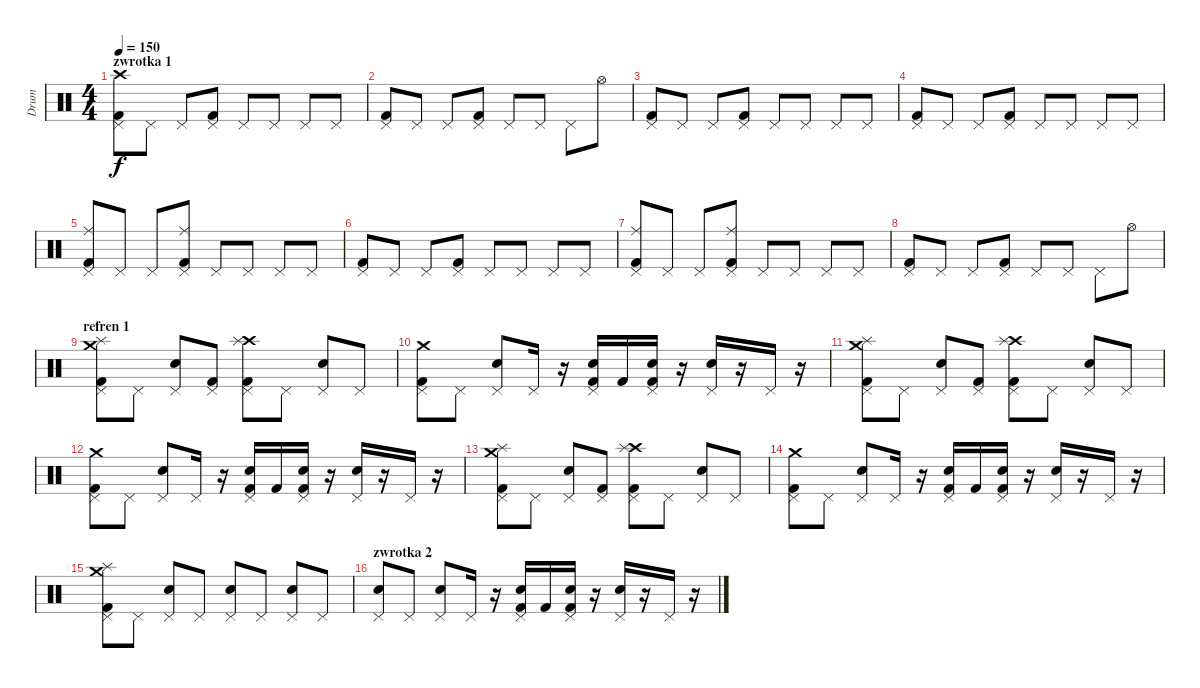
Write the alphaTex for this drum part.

\track ("Drum" "Drum") {instrument percussion}
\staff {score}
\articulation defaults
\ts (4 4)
\section ("" "zwrotka 1")
\tempo 150
\clef neutral
\ks c
("Crash high (hit)" "Kick (hit) 2" "Pedal Hi-Hat (hit)").8{dy f} "Pedal Hi-Hat (hit)".8 "Pedal Hi-Hat (hit)".8 ("Kick (hit) 2" "Pedal Hi-Hat (hit)").8 "Pedal Hi-Hat (hit)".8 "Pedal Hi-Hat (hit)".8 "Pedal Hi-Hat (hit)".8 "Pedal Hi-Hat (hit)".8 |
("Kick (hit) 2" "Pedal Hi-Hat (hit)").8 "Pedal Hi-Hat (hit)".8 "Pedal Hi-Hat (hit)".8 ("Kick (hit) 2" "Pedal Hi-Hat (hit)").8 "Pedal Hi-Hat (hit)".8 "Pedal Hi-Hat (hit)".8 "Pedal Hi-Hat (hit)".8 "Hi-Hat (open)".8 |
("Kick (hit) 2" "Pedal Hi-Hat (hit)").8 "Pedal Hi-Hat (hit)".8 "Pedal Hi-Hat (hit)".8 ("Kick (hit) 2" "Pedal Hi-Hat (hit)").8 "Pedal Hi-Hat (hit)".8 "Pedal Hi-Hat (hit)".8 "Pedal Hi-Hat (hit)".8 "Pedal Hi-Hat (hit)".8 |
("Kick (hit) 2" "Pedal Hi-Hat (hit)").8 "Pedal Hi-Hat (hit)".8 "Pedal Hi-Hat (hit)".8 ("Kick (hit) 2" "Pedal Hi-Hat (hit)").8 "Pedal Hi-Hat (hit)".8 "Pedal Hi-Hat (hit)".8 "Pedal Hi-Hat (hit)".8 "Pedal Hi-Hat (hit)".8 |
("Ride (middle)" "Kick (hit) 2" "Pedal Hi-Hat (hit)").8 "Pedal Hi-Hat (hit)".8 "Pedal Hi-Hat (hit)".8 ("Ride (middle)" "Kick (hit) 2" "Pedal Hi-Hat (hit)").8 "Pedal Hi-Hat (hit)".8 "Pedal Hi-Hat (hit)".8 "Pedal Hi-Hat (hit)".8 "Pedal Hi-Hat (hit)".8 |
("Kick (hit) 2" "Pedal Hi-Hat (hit)").8 "Pedal Hi-Hat (hit)".8 "Pedal Hi-Hat (hit)".8 ("Kick (hit) 2" "Pedal Hi-Hat (hit)").8 "Pedal Hi-Hat (hit)".8 "Pedal Hi-Hat (hit)".8 "Pedal Hi-Hat (hit)".8 "Pedal Hi-Hat (hit)".8 |
("Ride (middle)" "Kick (hit) 2" "Pedal Hi-Hat (hit)").8 "Pedal Hi-Hat (hit)".8 "Pedal Hi-Hat (hit)".8 ("Ride (middle)" "Kick (hit) 2" "Pedal Hi-Hat (hit)").8 "Pedal Hi-Hat (hit)".8 "Pedal Hi-Hat (hit)".8 "Pedal Hi-Hat (hit)".8 "Pedal Hi-Hat (hit)".8 |
("Kick (hit) 2" "Pedal Hi-Hat (hit)").8 "Pedal Hi-Hat (hit)".8 "Pedal Hi-Hat (hit)".8 ("Kick (hit) 2" "Pedal Hi-Hat (hit)").8 "Pedal Hi-Hat (hit)".8 "Pedal Hi-Hat (hit)".8 "Pedal Hi-Hat (hit)".8 "Hi-Hat (open)".8 |
\section ("" "refren 1")
("Crash medium (hit)" "Splash (hit)" "Kick (hit) 2" "Pedal Hi-Hat (hit)").8 "Pedal Hi-Hat (hit)".8 ("Electric Snare (hit)" "Pedal Hi-Hat (hit)").8 ("Kick (hit) 2" "Pedal Hi-Hat (hit)").8 ("Crash high (hit)" "Splash (hit)" "Kick (hit) 2" "Pedal Hi-Hat (hit)").8 "Pedal Hi-Hat (hit)".8 ("Electric Snare (hit)" "Pedal Hi-Hat (hit)").8 "Pedal Hi-Hat (hit)".8 |
("Crash medium (hit)" "Kick (hit) 2" "Pedal Hi-Hat (hit)").8 "Pedal Hi-Hat (hit)".8 ("Electric Snare (hit)" "Pedal Hi-Hat (hit)").8 "Pedal Hi-Hat (hit)".16 r.16 ("Snare (hit) 2" "Kick (hit) 2" "Pedal Hi-Hat (hit)").16 "Kick (hit) 2".16 ("Snare (hit) 2" "Kick (hit) 2" "Pedal Hi-Hat (hit)").16 r.16 ("Electric Snare (hit)" "Pedal Hi-Hat (hit)").16 r.16 "Pedal Hi-Hat (hit)".16 r.16 |
("Crash medium (hit)" "Splash (hit)" "Kick (hit) 2" "Pedal Hi-Hat (hit)").8 "Pedal Hi-Hat (hit)".8 ("Electric Snare (hit)" "Pedal Hi-Hat (hit)").8 ("Kick (hit) 2" "Pedal Hi-Hat (hit)").8 ("Crash high (hit)" "Splash (hit)" "Kick (hit) 2" "Pedal Hi-Hat (hit)").8 "Pedal Hi-Hat (hit)".8 ("Electric Snare (hit)" "Pedal Hi-Hat (hit)").8 "Pedal Hi-Hat (hit)".8 |
("Crash medium (hit)" "Kick (hit) 2" "Pedal Hi-Hat (hit)").8 "Pedal Hi-Hat (hit)".8 ("Electric Snare (hit)" "Pedal Hi-Hat (hit)").8 "Pedal Hi-Hat (hit)".16 r.16 ("Snare (hit) 2" "Kick (hit) 2" "Pedal Hi-Hat (hit)").16 "Kick (hit) 2".16 ("Snare (hit) 2" "Kick (hit) 2" "Pedal Hi-Hat (hit)").16 r.16 ("Electric Snare (hit)" "Pedal Hi-Hat (hit)").16 r.16 "Pedal Hi-Hat (hit)".16 r.16 |
("Crash medium (hit)" "Splash (hit)" "Kick (hit) 2" "Pedal Hi-Hat (hit)").8 "Pedal Hi-Hat (hit)".8 ("Electric Snare (hit)" "Pedal Hi-Hat (hit)").8 ("Kick (hit) 2" "Pedal Hi-Hat (hit)").8 ("Crash high (hit)" "Splash (hit)" "Kick (hit) 2" "Pedal Hi-Hat (hit)").8 "Pedal Hi-Hat (hit)".8 ("Electric Snare (hit)" "Pedal Hi-Hat (hit)").8 "Pedal Hi-Hat (hit)".8 |
("Crash medium (hit)" "Kick (hit) 2" "Pedal Hi-Hat (hit)").8 "Pedal Hi-Hat (hit)".8 ("Electric Snare (hit)" "Pedal Hi-Hat (hit)").8 "Pedal Hi-Hat (hit)".16 r.16 ("Snare (hit) 2" "Kick (hit) 2" "Pedal Hi-Hat (hit)").16 "Kick (hit) 2".16 ("Snare (hit) 2" "Kick (hit) 2" "Pedal Hi-Hat (hit)").16 r.16 ("Electric Snare (hit)" "Pedal Hi-Hat (hit)").16 r.16 "Pedal Hi-Hat (hit)".16 r.16 |
("Crash medium (hit)" "Splash (hit)" "Kick (hit) 2" "Pedal Hi-Hat (hit)").8 "Pedal Hi-Hat (hit)".8 ("Electric Snare (hit)" "Pedal Hi-Hat (hit)").8 "Pedal Hi-Hat (hit)".8 ("Electric Snare (hit)" "Pedal Hi-Hat (hit)").8 "Pedal Hi-Hat (hit)".8 ("Electric Snare (hit)" "Pedal Hi-Hat (hit)").8 "Pedal Hi-Hat (hit)".8 |
\section ("" "zwrotka 2")
("Electric Snare (hit)" "Pedal Hi-Hat (hit)").8 "Pedal Hi-Hat (hit)".8 ("Electric Snare (hit)" "Pedal Hi-Hat (hit)").8 "Pedal Hi-Hat (hit)".16 r.16 ("Snare (hit) 2" "Kick (hit) 2" "Pedal Hi-Hat (hit)").16 "Kick (hit) 2".16 ("Snare (hit) 2" "Kick (hit) 2" "Pedal Hi-Hat (hit)").16 r.16 ("Electric Snare (hit)" "Pedal Hi-Hat (hit)").16 r.16 "Pedal Hi-Hat (hit)".16 r.16
